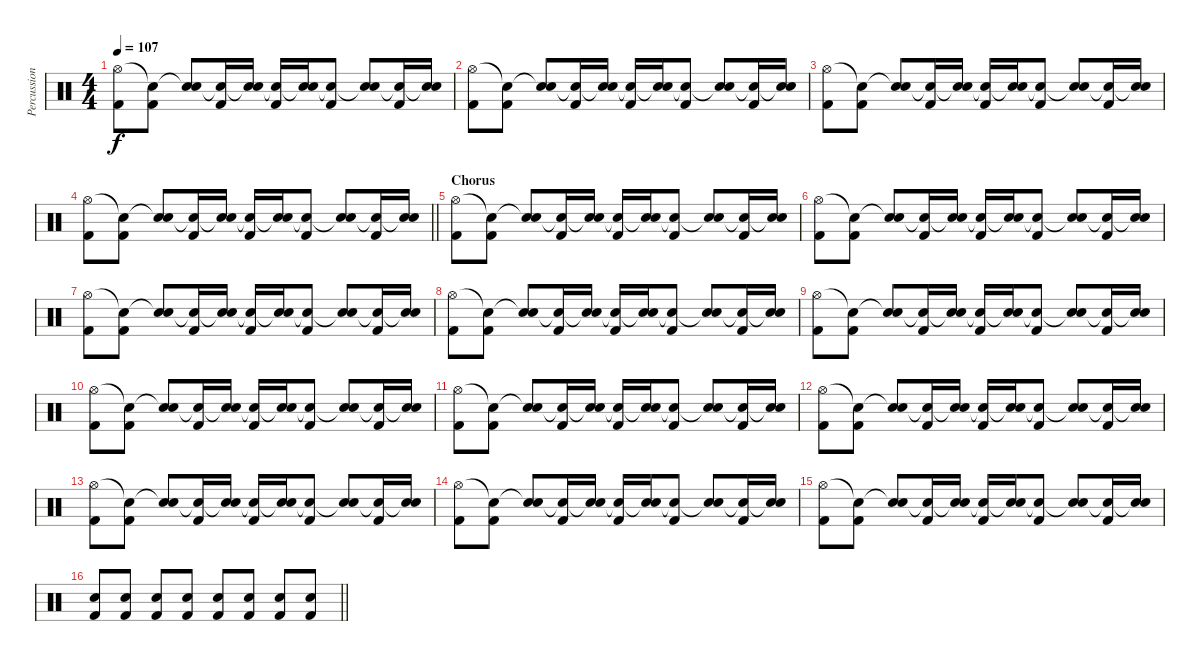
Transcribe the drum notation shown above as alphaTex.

\track ("Percussioni" "Percussion") {instrument percussion}
\staff {score}
\articulation defaults
\ts (4 4)
\tempo 107
\clef neutral
\ks c
("Hi-Hat (open)" "Kick (hit) 2").8{dy f} ("Snare (hit)"{t} "Kick (hit) 2").8 ("Snare (hit)"{t} "Electric Snare (hit)").8 ("Snare (hit)"{t} "Kick (hit) 2").16 ("Snare (hit)"{t} "Electric Snare (hit)").16 ("Snare (hit)"{t} "Kick (hit) 2").16 ("Snare (hit)"{t} "Electric Snare (hit)").16 ("Snare (hit)"{t} "Kick (hit) 2").8 ("Snare (hit)"{t} "Electric Snare (hit)").8 ("Snare (hit)"{t} "Kick (hit) 2").16 ("Snare (hit)"{t} "Electric Snare (hit)").16 |
("Hi-Hat (open)" "Kick (hit) 2").8 ("Snare (hit)"{t} "Kick (hit) 2").8 ("Snare (hit)"{t} "Electric Snare (hit)").8 ("Snare (hit)"{t} "Kick (hit) 2").16 ("Snare (hit)"{t} "Electric Snare (hit)").16 ("Snare (hit)"{t} "Kick (hit) 2").16 ("Snare (hit)"{t} "Electric Snare (hit)").16 ("Snare (hit)"{t} "Kick (hit) 2").8 ("Snare (hit)"{t} "Electric Snare (hit)").8 ("Snare (hit)"{t} "Kick (hit) 2").16 ("Snare (hit)"{t} "Electric Snare (hit)").16 |
("Hi-Hat (open)" "Kick (hit) 2").8 ("Snare (hit)"{t} "Kick (hit) 2").8 ("Snare (hit)"{t} "Electric Snare (hit)").8 ("Snare (hit)"{t} "Kick (hit) 2").16 ("Snare (hit)"{t} "Electric Snare (hit)").16 ("Snare (hit)"{t} "Kick (hit) 2").16 ("Snare (hit)"{t} "Electric Snare (hit)").16 ("Snare (hit)"{t} "Kick (hit) 2").8 ("Snare (hit)"{t} "Electric Snare (hit)").8 ("Snare (hit)"{t} "Kick (hit) 2").16 ("Snare (hit)"{t} "Electric Snare (hit)").16 |
\barLineRight lightlight
("Hi-Hat (open)" "Kick (hit) 2").8 ("Snare (hit)"{t} "Kick (hit) 2").8 ("Snare (hit)"{t} "Electric Snare (hit)").8 ("Snare (hit)"{t} "Kick (hit) 2").16 ("Snare (hit)"{t} "Electric Snare (hit)").16 ("Snare (hit)"{t} "Kick (hit) 2").16 ("Snare (hit)"{t} "Electric Snare (hit)").16 ("Snare (hit)"{t} "Kick (hit) 2").8 ("Snare (hit)"{t} "Electric Snare (hit)").8 ("Snare (hit)"{t} "Kick (hit) 2").16 ("Snare (hit)"{t} "Electric Snare (hit)").16 |
\section ("" "Chorus")
("Hi-Hat (open)" "Kick (hit) 2").8 ("Snare (hit)"{t} "Kick (hit) 2").8 ("Snare (hit)"{t} "Electric Snare (hit)").8 ("Snare (hit)"{t} "Kick (hit) 2").16 ("Snare (hit)"{t} "Electric Snare (hit)").16 ("Snare (hit)"{t} "Kick (hit) 2").16 ("Snare (hit)"{t} "Electric Snare (hit)").16 ("Snare (hit)"{t} "Kick (hit) 2").8 ("Snare (hit)"{t} "Electric Snare (hit)").8 ("Snare (hit)"{t} "Kick (hit) 2").16 ("Snare (hit)"{t} "Electric Snare (hit)").16 |
("Hi-Hat (open)" "Kick (hit) 2").8 ("Snare (hit)"{t} "Kick (hit) 2").8 ("Snare (hit)"{t} "Electric Snare (hit)").8 ("Snare (hit)"{t} "Kick (hit) 2").16 ("Snare (hit)"{t} "Electric Snare (hit)").16 ("Snare (hit)"{t} "Kick (hit) 2").16 ("Snare (hit)"{t} "Electric Snare (hit)").16 ("Snare (hit)"{t} "Kick (hit) 2").8 ("Snare (hit)"{t} "Electric Snare (hit)").8 ("Snare (hit)"{t} "Kick (hit) 2").16 ("Snare (hit)"{t} "Electric Snare (hit)").16 |
("Hi-Hat (open)" "Kick (hit) 2").8 ("Snare (hit)"{t} "Kick (hit) 2").8 ("Snare (hit)"{t} "Electric Snare (hit)").8 ("Snare (hit)"{t} "Kick (hit) 2").16 ("Snare (hit)"{t} "Electric Snare (hit)").16 ("Snare (hit)"{t} "Kick (hit) 2").16 ("Snare (hit)"{t} "Electric Snare (hit)").16 ("Snare (hit)"{t} "Kick (hit) 2").8 ("Snare (hit)"{t} "Electric Snare (hit)").8 ("Snare (hit)"{t} "Kick (hit) 2").16 ("Snare (hit)"{t} "Electric Snare (hit)").16 |
("Hi-Hat (open)" "Kick (hit) 2").8 ("Snare (hit)"{t} "Kick (hit) 2").8 ("Snare (hit)"{t} "Electric Snare (hit)").8 ("Snare (hit)"{t} "Kick (hit) 2").16 ("Snare (hit)"{t} "Electric Snare (hit)").16 ("Snare (hit)"{t} "Kick (hit) 2").16 ("Snare (hit)"{t} "Electric Snare (hit)").16 ("Snare (hit)"{t} "Kick (hit) 2").8 ("Snare (hit)"{t} "Electric Snare (hit)").8 ("Snare (hit)"{t} "Kick (hit) 2").16 ("Snare (hit)"{t} "Electric Snare (hit)").16 |
("Hi-Hat (open)" "Kick (hit) 2").8 ("Snare (hit)"{t} "Kick (hit) 2").8 ("Snare (hit)"{t} "Electric Snare (hit)").8 ("Snare (hit)"{t} "Kick (hit) 2").16 ("Snare (hit)"{t} "Electric Snare (hit)").16 ("Snare (hit)"{t} "Kick (hit) 2").16 ("Snare (hit)"{t} "Electric Snare (hit)").16 ("Snare (hit)"{t} "Kick (hit) 2").8 ("Snare (hit)"{t} "Electric Snare (hit)").8 ("Snare (hit)"{t} "Kick (hit) 2").16 ("Snare (hit)"{t} "Electric Snare (hit)").16 |
("Hi-Hat (open)" "Kick (hit) 2").8 ("Snare (hit)"{t} "Kick (hit) 2").8 ("Snare (hit)"{t} "Electric Snare (hit)").8 ("Snare (hit)"{t} "Kick (hit) 2").16 ("Snare (hit)"{t} "Electric Snare (hit)").16 ("Snare (hit)"{t} "Kick (hit) 2").16 ("Snare (hit)"{t} "Electric Snare (hit)").16 ("Snare (hit)"{t} "Kick (hit) 2").8 ("Snare (hit)"{t} "Electric Snare (hit)").8 ("Snare (hit)"{t} "Kick (hit) 2").16 ("Snare (hit)"{t} "Electric Snare (hit)").16 |
("Hi-Hat (open)" "Kick (hit) 2").8 ("Snare (hit)"{t} "Kick (hit) 2").8 ("Snare (hit)"{t} "Electric Snare (hit)").8 ("Snare (hit)"{t} "Kick (hit) 2").16 ("Snare (hit)"{t} "Electric Snare (hit)").16 ("Snare (hit)"{t} "Kick (hit) 2").16 ("Snare (hit)"{t} "Electric Snare (hit)").16 ("Snare (hit)"{t} "Kick (hit) 2").8 ("Snare (hit)"{t} "Electric Snare (hit)").8 ("Snare (hit)"{t} "Kick (hit) 2").16 ("Snare (hit)"{t} "Electric Snare (hit)").16 |
("Hi-Hat (open)" "Kick (hit) 2").8 ("Snare (hit)"{t} "Kick (hit) 2").8 ("Snare (hit)"{t} "Electric Snare (hit)").8 ("Snare (hit)"{t} "Kick (hit) 2").16 ("Snare (hit)"{t} "Electric Snare (hit)").16 ("Snare (hit)"{t} "Kick (hit) 2").16 ("Snare (hit)"{t} "Electric Snare (hit)").16 ("Snare (hit)"{t} "Kick (hit) 2").8 ("Snare (hit)"{t} "Electric Snare (hit)").8 ("Snare (hit)"{t} "Kick (hit) 2").16 ("Snare (hit)"{t} "Electric Snare (hit)").16 |
("Hi-Hat (open)" "Kick (hit) 2").8 ("Snare (hit)"{t} "Kick (hit) 2").8 ("Snare (hit)"{t} "Electric Snare (hit)").8 ("Snare (hit)"{t} "Kick (hit) 2").16 ("Snare (hit)"{t} "Electric Snare (hit)").16 ("Snare (hit)"{t} "Kick (hit) 2").16 ("Snare (hit)"{t} "Electric Snare (hit)").16 ("Snare (hit)"{t} "Kick (hit) 2").8 ("Snare (hit)"{t} "Electric Snare (hit)").8 ("Snare (hit)"{t} "Kick (hit) 2").16 ("Snare (hit)"{t} "Electric Snare (hit)").16 |
("Hi-Hat (open)" "Kick (hit) 2").8 ("Snare (hit)"{t} "Kick (hit) 2").8 ("Snare (hit)"{t} "Electric Snare (hit)").8 ("Snare (hit)"{t} "Kick (hit) 2").16 ("Snare (hit)"{t} "Electric Snare (hit)").16 ("Snare (hit)"{t} "Kick (hit) 2").16 ("Snare (hit)"{t} "Electric Snare (hit)").16 ("Snare (hit)"{t} "Kick (hit) 2").8 ("Snare (hit)"{t} "Electric Snare (hit)").8 ("Snare (hit)"{t} "Kick (hit) 2").16 ("Snare (hit)"{t} "Electric Snare (hit)").16 |
("Hi-Hat (open)" "Kick (hit) 2").8 ("Snare (hit)"{t} "Kick (hit) 2").8 ("Snare (hit)"{t} "Electric Snare (hit)").8 ("Snare (hit)"{t} "Kick (hit) 2").16 ("Snare (hit)"{t} "Electric Snare (hit)").16 ("Snare (hit)"{t} "Kick (hit) 2").16 ("Snare (hit)"{t} "Electric Snare (hit)").16 ("Snare (hit)"{t} "Kick (hit) 2").8 ("Snare (hit)"{t} "Electric Snare (hit)").8 ("Snare (hit)"{t} "Kick (hit) 2").16 ("Snare (hit)"{t} "Electric Snare (hit)").16 |
\barLineRight lightlight
("Electric Snare (hit)" "Kick (hit) 2").8 ("Electric Snare (hit)" "Kick (hit) 2").8 ("Electric Snare (hit)" "Kick (hit) 2").8 ("Electric Snare (hit)" "Kick (hit) 2").8 ("Electric Snare (hit)" "Kick (hit) 2").8 ("Electric Snare (hit)" "Kick (hit) 2").8 ("Electric Snare (hit)" "Kick (hit) 2").8 ("Electric Snare (hit)" "Kick (hit) 2").8
